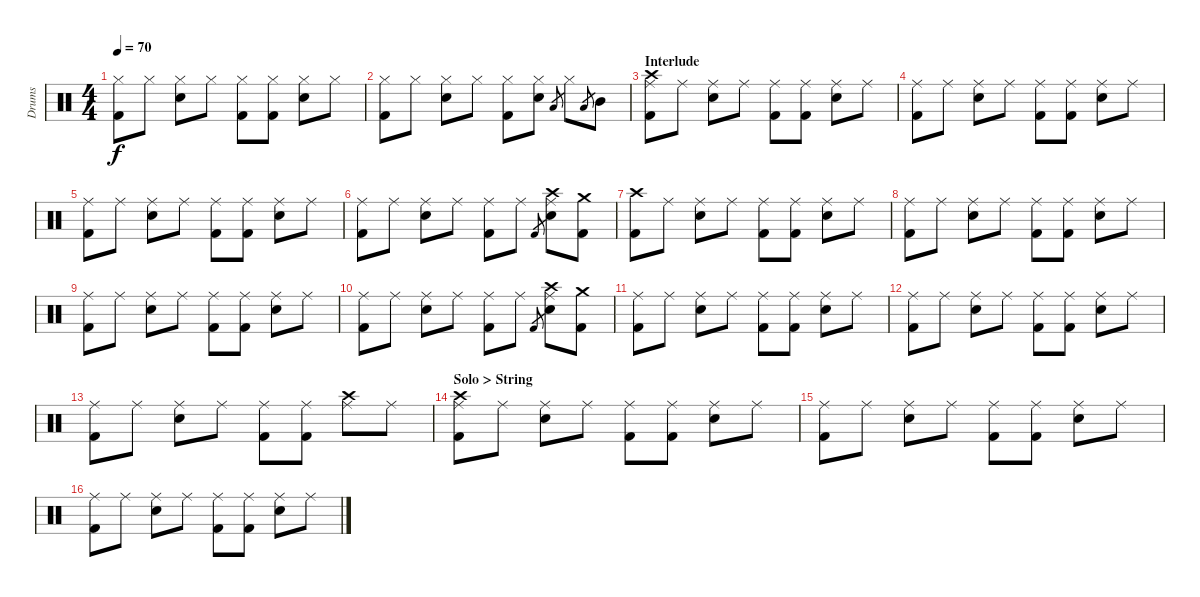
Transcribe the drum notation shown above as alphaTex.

\track ("Drums" "Drums") {instrument percussion}
\staff {score}
\articulation defaults
\ts (4 4)
\tempo 70
\clef neutral
\ks c
("Hi-Hat (closed)" "Kick (hit) 2").8{dy f} "Hi-Hat (closed)".8 ("Hi-Hat (closed)" "Electric Snare (hit)").8 "Hi-Hat (closed)".8 ("Hi-Hat (closed)" "Kick (hit) 2").8 ("Hi-Hat (closed)" "Kick (hit) 2").8 ("Hi-Hat (closed)" "Electric Snare (hit)").8 "Hi-Hat (closed)".8 |
("Hi-Hat (closed)" "Kick (hit) 2").8 "Hi-Hat (closed)".8 ("Hi-Hat (closed)" "Electric Snare (hit)").8 "Hi-Hat (closed)".8 ("Hi-Hat (closed)" "Kick (hit) 2").8 ("Hi-Hat (closed)" "Electric Snare (hit)").8 "Low Tom (hit)".8{gr} "Hi-Hat (closed)".8 "Low Tom (hit)".8{gr} "Mid Tom (hit)".8 |
\section ("" "Interlude")
("Crash high (hit)" "Ride (middle)" "Kick (hit) 2").8 "Ride (middle)".8 ("Ride (middle)" "Electric Snare (hit)").8 "Ride (middle)".8 ("Ride (middle)" "Kick (hit) 2").8 ("Ride (middle)" "Kick (hit) 2").8 ("Ride (middle)" "Electric Snare (hit)").8 "Ride (middle)".8 |
("Ride (middle)" "Kick (hit) 2").8 "Ride (middle)".8 ("Ride (middle)" "Electric Snare (hit)").8 "Ride (middle)".8 ("Ride (middle)" "Kick (hit) 2").8 ("Ride (middle)" "Kick (hit) 2").8 ("Ride (middle)" "Electric Snare (hit)").8 "Ride (middle)".8 |
("Ride (middle)" "Kick (hit) 2").8 "Ride (middle)".8 ("Ride (middle)" "Electric Snare (hit)").8 "Ride (middle)".8 ("Ride (middle)" "Kick (hit) 2").8 ("Ride (middle)" "Kick (hit) 2").8 ("Ride (middle)" "Electric Snare (hit)").8 "Ride (middle)".8 |
("Ride (middle)" "Kick (hit) 2").8 "Ride (middle)".8 ("Ride (middle)" "Electric Snare (hit)").8 "Ride (middle)".8 ("Ride (middle)" "Kick (hit) 2").8 "Ride (middle)".8 "Kick (hit) 2".8{gr} ("Crash high (hit)" "Ride (middle)" "Electric Snare (hit)").8 ("Crash medium (hit)" "Kick (hit) 2").8 |
("Crash high (hit)" "Kick (hit) 2").8 "Ride (middle)".8 ("Ride (middle)" "Electric Snare (hit)").8 "Ride (middle)".8 ("Ride (middle)" "Kick (hit) 2").8 ("Ride (middle)" "Kick (hit) 2").8 ("Ride (middle)" "Electric Snare (hit)").8 "Ride (middle)".8 |
("Ride (middle)" "Kick (hit) 2").8 "Ride (middle)".8 ("Ride (middle)" "Electric Snare (hit)").8 "Ride (middle)".8 ("Ride (middle)" "Kick (hit) 2").8 ("Ride (middle)" "Kick (hit) 2").8 ("Ride (middle)" "Electric Snare (hit)").8 "Ride (middle)".8 |
("Ride (middle)" "Kick (hit) 2").8 "Ride (middle)".8 ("Ride (middle)" "Electric Snare (hit)").8 "Ride (middle)".8 ("Ride (middle)" "Kick (hit) 2").8 ("Ride (middle)" "Kick (hit) 2").8 ("Ride (middle)" "Electric Snare (hit)").8 "Ride (middle)".8 |
("Ride (middle)" "Kick (hit) 2").8 "Ride (middle)".8 ("Ride (middle)" "Electric Snare (hit)").8 "Ride (middle)".8 ("Ride (middle)" "Kick (hit) 2").8 "Ride (middle)".8 "Kick (hit) 2".8{gr} ("Crash high (hit)" "Ride (middle)" "Electric Snare (hit)").8 ("Crash medium (hit)" "Kick (hit) 2").8 |
("Ride (middle)" "Kick (hit) 2").8 "Ride (middle)".8 ("Ride (middle)" "Electric Snare (hit)").8 "Ride (middle)".8 ("Ride (middle)" "Kick (hit) 2").8 ("Ride (middle)" "Kick (hit) 2").8 ("Ride (middle)" "Electric Snare (hit)").8 "Ride (middle)".8 |
("Ride (middle)" "Kick (hit) 2").8 "Ride (middle)".8 ("Ride (middle)" "Electric Snare (hit)").8 "Ride (middle)".8 ("Ride (middle)" "Kick (hit) 2").8 ("Ride (middle)" "Kick (hit) 2").8 ("Ride (middle)" "Electric Snare (hit)").8 "Ride (middle)".8 |
("Ride (middle)" "Kick (hit) 2").8 "Ride (middle)".8 ("Ride (middle)" "Electric Snare (hit)").8 "Ride (middle)".8 ("Ride (middle)" "Kick (hit) 2").8 ("Ride (middle)" "Kick (hit) 2").8 ("Crash high (hit)" "Ride (middle)").8 "Ride (middle)".8 |
\section ("" "Solo > String")
("Crash high (hit)" "Ride (middle)" "Kick (hit) 2").8 "Ride (middle)".8 ("Ride (middle)" "Electric Snare (hit)").8 "Ride (middle)".8 ("Ride (middle)" "Kick (hit) 2").8 ("Ride (middle)" "Kick (hit) 2").8 ("Ride (middle)" "Electric Snare (hit)").8 "Ride (middle)".8 |
("Ride (middle)" "Kick (hit) 2").8 "Ride (middle)".8 ("Ride (middle)" "Electric Snare (hit)").8 "Ride (middle)".8 ("Ride (middle)" "Kick (hit) 2").8 ("Ride (middle)" "Kick (hit) 2").8 ("Ride (middle)" "Electric Snare (hit)").8 "Ride (middle)".8 |
("Ride (middle)" "Kick (hit) 2").8 "Ride (middle)".8 ("Ride (middle)" "Electric Snare (hit)").8 "Ride (middle)".8 ("Ride (middle)" "Kick (hit) 2").8 ("Ride (middle)" "Kick (hit) 2").8 ("Ride (middle)" "Electric Snare (hit)").8 "Ride (middle)".8
